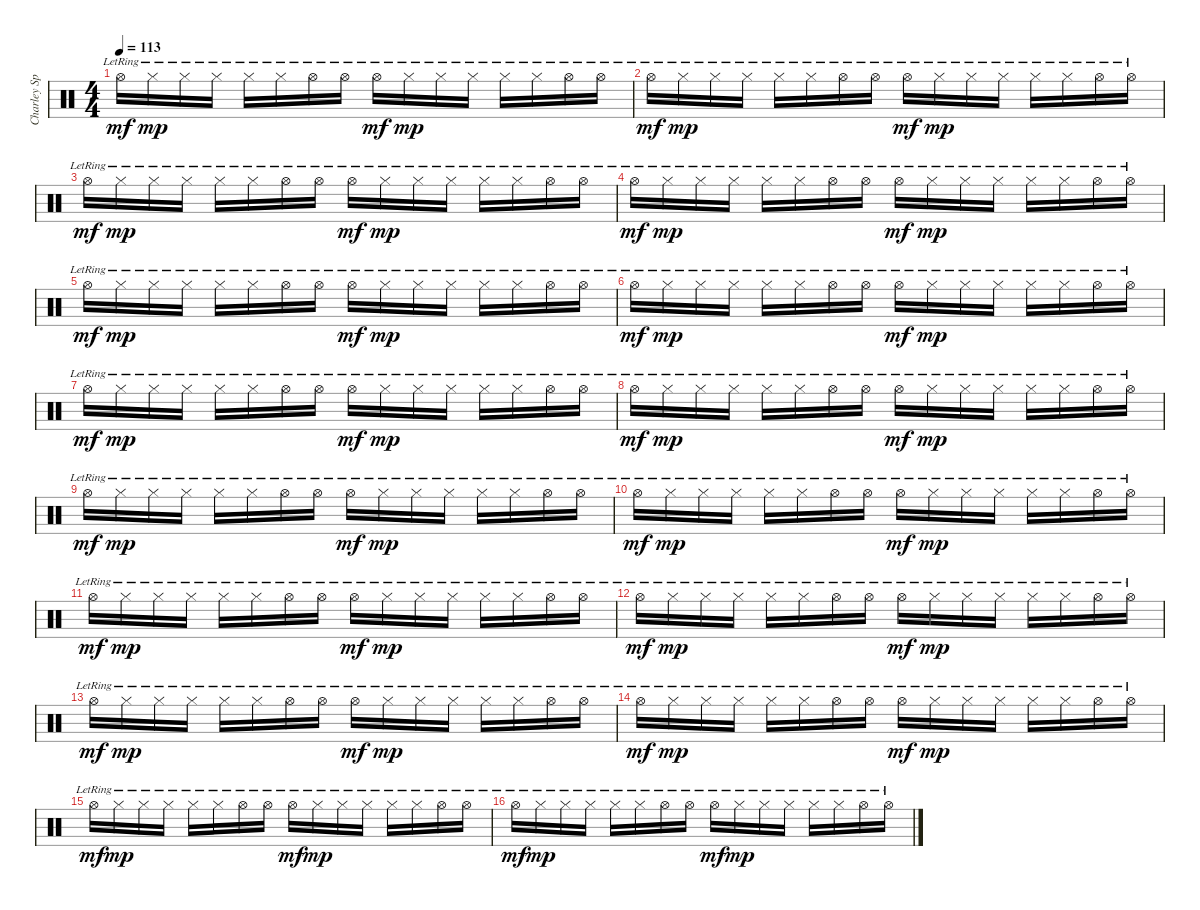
\track ("Charley Spec." "Charley Sp") {instrument percussion}
\staff {score}
\articulation defaults
\ts (4 4)
\tempo 113
\clef neutral
\ks c "Hi-Hat (open)"{lr}.16{dy mf} "Hi-Hat (closed)"{lr}.16{dy mp} "Hi-Hat (closed)"{lr}.16 "Hi-Hat (closed)"{lr}.16 "Hi-Hat (closed)"{lr}.16 "Hi-Hat (closed)"{lr}.16 "Hi-Hat (open)"{lr}.16 "Hi-Hat (open)"{lr}.16 "Hi-Hat (open)"{lr}.16{dy mf} "Hi-Hat (closed)"{lr}.16{dy mp} "Hi-Hat (closed)"{lr}.16 "Hi-Hat (closed)"{lr}.16 "Hi-Hat (closed)"{lr}.16 "Hi-Hat (closed)"{lr}.16 "Hi-Hat (open)"{lr}.16 "Hi-Hat (open)"{lr}.16
|
"Hi-Hat (open)"{lr}.16{dy mf} "Hi-Hat (closed)"{lr}.16{dy mp} "Hi-Hat (closed)"{lr}.16 "Hi-Hat (closed)"{lr}.16 "Hi-Hat (closed)"{lr}.16 "Hi-Hat (closed)"{lr}.16 "Hi-Hat (open)"{lr}.16 "Hi-Hat (open)"{lr}.16 "Hi-Hat (open)"{lr}.16{dy mf} "Hi-Hat (closed)"{lr}.16{dy mp} "Hi-Hat (closed)"{lr}.16 "Hi-Hat (closed)"{lr}.16 "Hi-Hat (closed)"{lr}.16 "Hi-Hat (closed)"{lr}.16 "Hi-Hat (open)"{lr}.16 "Hi-Hat (open)"{lr}.16 |
"Hi-Hat (open)"{lr}.16{dy mf} "Hi-Hat (closed)"{lr}.16{dy mp} "Hi-Hat (closed)"{lr}.16 "Hi-Hat (closed)"{lr}.16 "Hi-Hat (closed)"{lr}.16 "Hi-Hat (closed)"{lr}.16 "Hi-Hat (open)"{lr}.16 "Hi-Hat (open)"{lr}.16 "Hi-Hat (open)"{lr}.16{dy mf} "Hi-Hat (closed)"{lr}.16{dy mp} "Hi-Hat (closed)"{lr}.16 "Hi-Hat (closed)"{lr}.16 "Hi-Hat (closed)"{lr}.16 "Hi-Hat (closed)"{lr}.16 "Hi-Hat (open)"{lr}.16 "Hi-Hat (open)"{lr}.16 |
"Hi-Hat (open)"{lr}.16{dy mf} "Hi-Hat (closed)"{lr}.16{dy mp} "Hi-Hat (closed)"{lr}.16 "Hi-Hat (closed)"{lr}.16 "Hi-Hat (closed)"{lr}.16 "Hi-Hat (closed)"{lr}.16 "Hi-Hat (open)"{lr}.16 "Hi-Hat (open)"{lr}.16 "Hi-Hat (open)"{lr}.16{dy mf} "Hi-Hat (closed)"{lr}.16{dy mp} "Hi-Hat (closed)"{lr}.16 "Hi-Hat (closed)"{lr}.16 "Hi-Hat (closed)"{lr}.16 "Hi-Hat (closed)"{lr}.16 "Hi-Hat (open)"{lr}.16 "Hi-Hat (open)"{lr}.16 |
"Hi-Hat (open)"{lr}.16{dy mf} "Hi-Hat (closed)"{lr}.16{dy mp} "Hi-Hat (closed)"{lr}.16 "Hi-Hat (closed)"{lr}.16 "Hi-Hat (closed)"{lr}.16 "Hi-Hat (closed)"{lr}.16 "Hi-Hat (open)"{lr}.16 "Hi-Hat (open)"{lr}.16 "Hi-Hat (open)"{lr}.16{dy mf} "Hi-Hat (closed)"{lr}.16{dy mp} "Hi-Hat (closed)"{lr}.16 "Hi-Hat (closed)"{lr}.16 "Hi-Hat (closed)"{lr}.16 "Hi-Hat (closed)"{lr}.16 "Hi-Hat (open)"{lr}.16 "Hi-Hat (open)"{lr}.16 |
"Hi-Hat (open)"{lr}.16{dy mf} "Hi-Hat (closed)"{lr}.16{dy mp} "Hi-Hat (closed)"{lr}.16 "Hi-Hat (closed)"{lr}.16 "Hi-Hat (closed)"{lr}.16 "Hi-Hat (closed)"{lr}.16 "Hi-Hat (open)"{lr}.16 "Hi-Hat (open)"{lr}.16 "Hi-Hat (open)"{lr}.16{dy mf} "Hi-Hat (closed)"{lr}.16{dy mp} "Hi-Hat (closed)"{lr}.16 "Hi-Hat (closed)"{lr}.16 "Hi-Hat (closed)"{lr}.16 "Hi-Hat (closed)"{lr}.16 "Hi-Hat (open)"{lr}.16 "Hi-Hat (open)"{lr}.16 |
"Hi-Hat (open)"{lr}.16{dy mf} "Hi-Hat (closed)"{lr}.16{dy mp} "Hi-Hat (closed)"{lr}.16 "Hi-Hat (closed)"{lr}.16 "Hi-Hat (closed)"{lr}.16 "Hi-Hat (closed)"{lr}.16 "Hi-Hat (open)"{lr}.16 "Hi-Hat (open)"{lr}.16 "Hi-Hat (open)"{lr}.16{dy mf} "Hi-Hat (closed)"{lr}.16{dy mp} "Hi-Hat (closed)"{lr}.16 "Hi-Hat (closed)"{lr}.16 "Hi-Hat (closed)"{lr}.16 "Hi-Hat (closed)"{lr}.16 "Hi-Hat (open)"{lr}.16 "Hi-Hat (open)"{lr}.16 |
"Hi-Hat (open)"{lr}.16{dy mf} "Hi-Hat (closed)"{lr}.16{dy mp} "Hi-Hat (closed)"{lr}.16 "Hi-Hat (closed)"{lr}.16 "Hi-Hat (closed)"{lr}.16 "Hi-Hat (closed)"{lr}.16 "Hi-Hat (open)"{lr}.16 "Hi-Hat (open)"{lr}.16 "Hi-Hat (open)"{lr}.16{dy mf} "Hi-Hat (closed)"{lr}.16{dy mp} "Hi-Hat (closed)"{lr}.16 "Hi-Hat (closed)"{lr}.16 "Hi-Hat (closed)"{lr}.16 "Hi-Hat (closed)"{lr}.16 "Hi-Hat (open)"{lr}.16 "Hi-Hat (open)"{lr}.16 |
"Hi-Hat (open)"{lr}.16{dy mf} "Hi-Hat (closed)"{lr}.16{dy mp} "Hi-Hat (closed)"{lr}.16 "Hi-Hat (closed)"{lr}.16 "Hi-Hat (closed)"{lr}.16 "Hi-Hat (closed)"{lr}.16 "Hi-Hat (open)"{lr}.16 "Hi-Hat (open)"{lr}.16 "Hi-Hat (open)"{lr}.16{dy mf} "Hi-Hat (closed)"{lr}.16{dy mp} "Hi-Hat (closed)"{lr}.16 "Hi-Hat (closed)"{lr}.16 "Hi-Hat (closed)"{lr}.16 "Hi-Hat (closed)"{lr}.16 "Hi-Hat (open)"{lr}.16 "Hi-Hat (open)"{lr}.16 |
"Hi-Hat (open)"{lr}.16{dy mf} "Hi-Hat (closed)"{lr}.16{dy mp} "Hi-Hat (closed)"{lr}.16 "Hi-Hat (closed)"{lr}.16 "Hi-Hat (closed)"{lr}.16 "Hi-Hat (closed)"{lr}.16 "Hi-Hat (open)"{lr}.16 "Hi-Hat (open)"{lr}.16 "Hi-Hat (open)"{lr}.16{dy mf} "Hi-Hat (closed)"{lr}.16{dy mp} "Hi-Hat (closed)"{lr}.16 "Hi-Hat (closed)"{lr}.16 "Hi-Hat (closed)"{lr}.16 "Hi-Hat (closed)"{lr}.16 "Hi-Hat (open)"{lr}.16 "Hi-Hat (open)"{lr}.16 |
"Hi-Hat (open)"{lr}.16{dy mf} "Hi-Hat (closed)"{lr}.16{dy mp} "Hi-Hat (closed)"{lr}.16 "Hi-Hat (closed)"{lr}.16 "Hi-Hat (closed)"{lr}.16 "Hi-Hat (closed)"{lr}.16 "Hi-Hat (open)"{lr}.16 "Hi-Hat (open)"{lr}.16 "Hi-Hat (open)"{lr}.16{dy mf} "Hi-Hat (closed)"{lr}.16{dy mp} "Hi-Hat (closed)"{lr}.16 "Hi-Hat (closed)"{lr}.16 "Hi-Hat (closed)"{lr}.16 "Hi-Hat (closed)"{lr}.16 "Hi-Hat (open)"{lr}.16 "Hi-Hat (open)"{lr}.16 |
"Hi-Hat (open)"{lr}.16{dy mf} "Hi-Hat (closed)"{lr}.16{dy mp} "Hi-Hat (closed)"{lr}.16 "Hi-Hat (closed)"{lr}.16 "Hi-Hat (closed)"{lr}.16 "Hi-Hat (closed)"{lr}.16 "Hi-Hat (open)"{lr}.16 "Hi-Hat (open)"{lr}.16 "Hi-Hat (open)"{lr}.16{dy mf} "Hi-Hat (closed)"{lr}.16{dy mp} "Hi-Hat (closed)"{lr}.16 "Hi-Hat (closed)"{lr}.16 "Hi-Hat (closed)"{lr}.16 "Hi-Hat (closed)"{lr}.16 "Hi-Hat (open)"{lr}.16 "Hi-Hat (open)"{lr}.16 |
"Hi-Hat (open)"{lr}.16{dy mf} "Hi-Hat (closed)"{lr}.16{dy mp} "Hi-Hat (closed)"{lr}.16 "Hi-Hat (closed)"{lr}.16 "Hi-Hat (closed)"{lr}.16 "Hi-Hat (closed)"{lr}.16 "Hi-Hat (open)"{lr}.16 "Hi-Hat (open)"{lr}.16 "Hi-Hat (open)"{lr}.16{dy mf} "Hi-Hat (closed)"{lr}.16{dy mp} "Hi-Hat (closed)"{lr}.16 "Hi-Hat (closed)"{lr}.16 "Hi-Hat (closed)"{lr}.16 "Hi-Hat (closed)"{lr}.16 "Hi-Hat (open)"{lr}.16 "Hi-Hat (open)"{lr}.16 |
"Hi-Hat (open)"{lr}.16{dy mf} "Hi-Hat (closed)"{lr}.16{dy mp} "Hi-Hat (closed)"{lr}.16 "Hi-Hat (closed)"{lr}.16 "Hi-Hat (closed)"{lr}.16 "Hi-Hat (closed)"{lr}.16 "Hi-Hat (open)"{lr}.16 "Hi-Hat (open)"{lr}.16 "Hi-Hat (open)"{lr}.16{dy mf} "Hi-Hat (closed)"{lr}.16{dy mp} "Hi-Hat (closed)"{lr}.16 "Hi-Hat (closed)"{lr}.16 "Hi-Hat (closed)"{lr}.16 "Hi-Hat (closed)"{lr}.16 "Hi-Hat (open)"{lr}.16 "Hi-Hat (open)"{lr}.16 |
"Hi-Hat (open)"{lr}.16{dy mf} "Hi-Hat (closed)"{lr}.16{dy mp} "Hi-Hat (closed)"{lr}.16 "Hi-Hat (closed)"{lr}.16 "Hi-Hat (closed)"{lr}.16 "Hi-Hat (closed)"{lr}.16 "Hi-Hat (open)"{lr}.16 "Hi-Hat (open)"{lr}.16 "Hi-Hat (open)"{lr}.16{dy mf} "Hi-Hat (closed)"{lr}.16{dy mp} "Hi-Hat (closed)"{lr}.16 "Hi-Hat (closed)"{lr}.16 "Hi-Hat (closed)"{lr}.16 "Hi-Hat (closed)"{lr}.16 "Hi-Hat (open)"{lr}.16 "Hi-Hat (open)"{lr}.16 |
"Hi-Hat (open)"{lr}.16{dy mf} "Hi-Hat (closed)"{lr}.16{dy mp} "Hi-Hat (closed)"{lr}.16 "Hi-Hat (closed)"{lr}.16 "Hi-Hat (closed)"{lr}.16 "Hi-Hat (closed)"{lr}.16 "Hi-Hat (open)"{lr}.16 "Hi-Hat (open)"{lr}.16 "Hi-Hat (open)"{lr}.16{dy mf} "Hi-Hat (closed)"{lr}.16{dy mp} "Hi-Hat (closed)"{lr}.16 "Hi-Hat (closed)"{lr}.16 "Hi-Hat (closed)"{lr}.16 "Hi-Hat (closed)"{lr}.16 "Hi-Hat (open)"{lr}.16 "Hi-Hat (open)"{lr}.16
